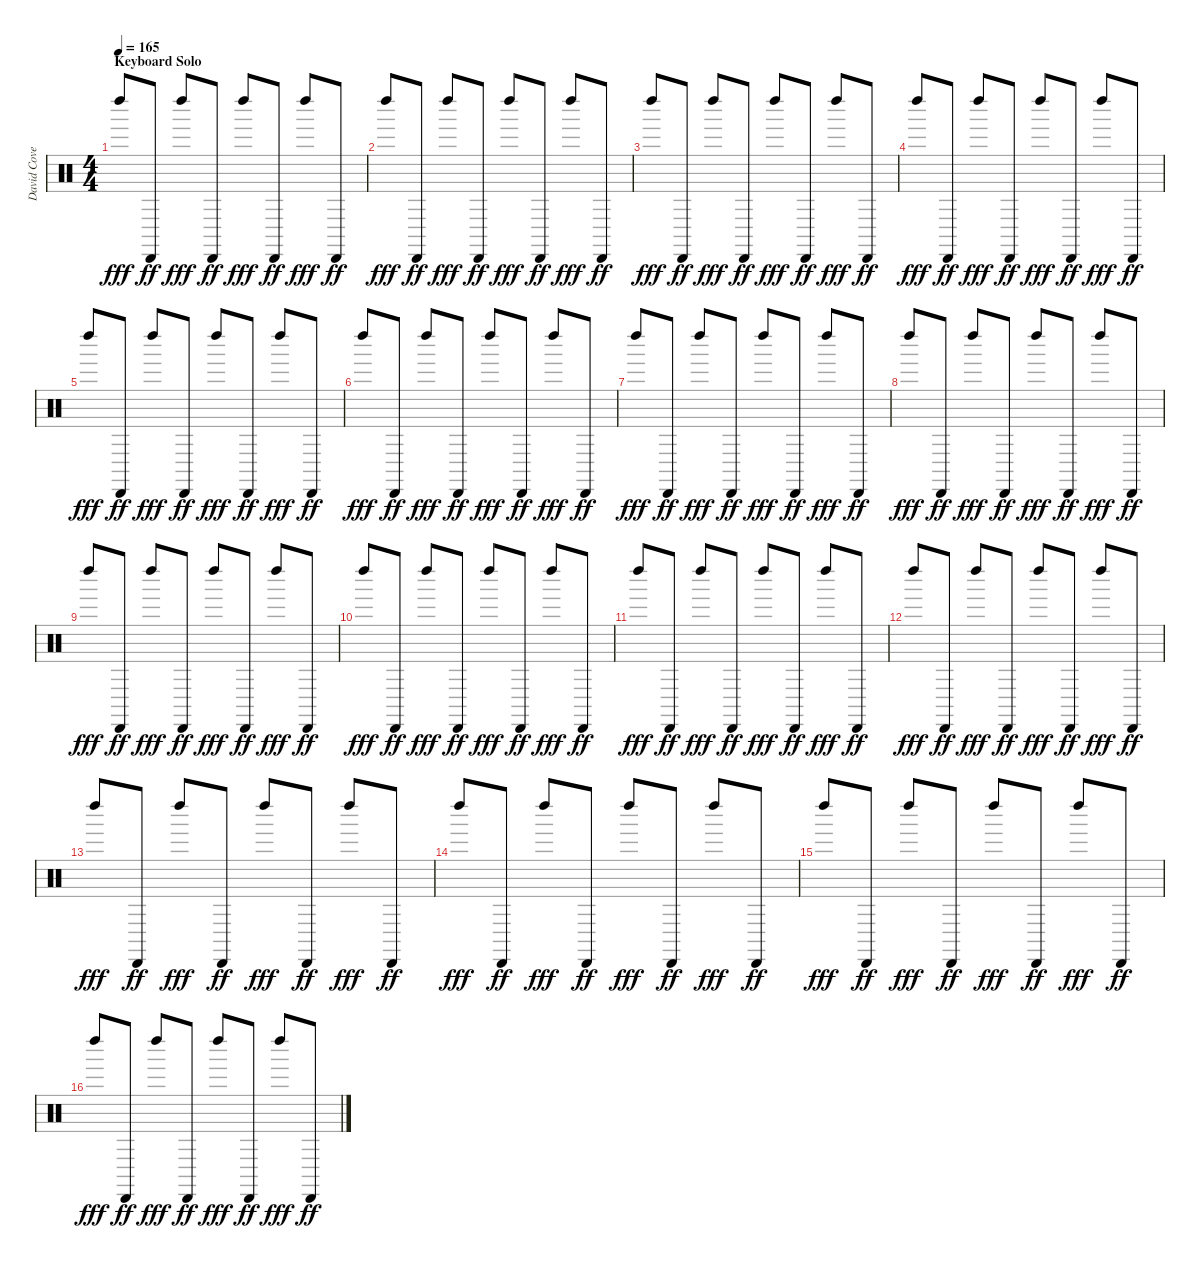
\track ("David Coverdale (Maracas)" "David Cove") {instrument percussion}
\staff {score}
\articulation defaults
\ts (4 4)
\section ("" "Keyboard Solo")
\tempo 165
\clef neutral
\ks c "Left Maraca (hit)".8{dy fff} "Cabasa (hit)".8{dy ff} "Left Maraca (hit)".8{dy fff} "Cabasa (hit)".8{dy ff} "Left Maraca (hit)".8{dy fff} "Cabasa (hit)".8{dy ff} "Left Maraca (hit)".8{dy fff} "Cabasa (hit)".8{dy ff}
|
"Left Maraca (hit)".8{dy fff} "Cabasa (hit)".8{dy ff} "Left Maraca (hit)".8{dy fff} "Cabasa (hit)".8{dy ff} "Left Maraca (hit)".8{dy fff} "Cabasa (hit)".8{dy ff} "Left Maraca (hit)".8{dy fff} "Cabasa (hit)".8{dy ff} |
"Left Maraca (hit)".8{dy fff} "Cabasa (hit)".8{dy ff} "Left Maraca (hit)".8{dy fff} "Cabasa (hit)".8{dy ff} "Left Maraca (hit)".8{dy fff} "Cabasa (hit)".8{dy ff} "Left Maraca (hit)".8{dy fff} "Cabasa (hit)".8{dy ff} |
"Left Maraca (hit)".8{dy fff} "Cabasa (hit)".8{dy ff} "Left Maraca (hit)".8{dy fff} "Cabasa (hit)".8{dy ff} "Left Maraca (hit)".8{dy fff} "Cabasa (hit)".8{dy ff} "Left Maraca (hit)".8{dy fff} "Cabasa (hit)".8{dy ff} |
"Left Maraca (hit)".8{dy fff} "Cabasa (hit)".8{dy ff} "Left Maraca (hit)".8{dy fff} "Cabasa (hit)".8{dy ff} "Left Maraca (hit)".8{dy fff} "Cabasa (hit)".8{dy ff} "Left Maraca (hit)".8{dy fff} "Cabasa (hit)".8{dy ff} |
"Left Maraca (hit)".8{dy fff} "Cabasa (hit)".8{dy ff} "Left Maraca (hit)".8{dy fff} "Cabasa (hit)".8{dy ff} "Left Maraca (hit)".8{dy fff} "Cabasa (hit)".8{dy ff} "Left Maraca (hit)".8{dy fff} "Cabasa (hit)".8{dy ff} |
"Left Maraca (hit)".8{dy fff} "Cabasa (hit)".8{dy ff} "Left Maraca (hit)".8{dy fff} "Cabasa (hit)".8{dy ff} "Left Maraca (hit)".8{dy fff} "Cabasa (hit)".8{dy ff} "Left Maraca (hit)".8{dy fff} "Cabasa (hit)".8{dy ff} |
"Left Maraca (hit)".8{dy fff} "Cabasa (hit)".8{dy ff} "Left Maraca (hit)".8{dy fff} "Cabasa (hit)".8{dy ff} "Left Maraca (hit)".8{dy fff} "Cabasa (hit)".8{dy ff} "Left Maraca (hit)".8{dy fff} "Cabasa (hit)".8{dy ff} |
"Left Maraca (hit)".8{dy fff} "Cabasa (hit)".8{dy ff} "Left Maraca (hit)".8{dy fff} "Cabasa (hit)".8{dy ff} "Left Maraca (hit)".8{dy fff} "Cabasa (hit)".8{dy ff} "Left Maraca (hit)".8{dy fff} "Cabasa (hit)".8{dy ff} |
"Left Maraca (hit)".8{dy fff} "Cabasa (hit)".8{dy ff} "Left Maraca (hit)".8{dy fff} "Cabasa (hit)".8{dy ff} "Left Maraca (hit)".8{dy fff} "Cabasa (hit)".8{dy ff} "Left Maraca (hit)".8{dy fff} "Cabasa (hit)".8{dy ff} |
"Left Maraca (hit)".8{dy fff} "Cabasa (hit)".8{dy ff} "Left Maraca (hit)".8{dy fff} "Cabasa (hit)".8{dy ff} "Left Maraca (hit)".8{dy fff} "Cabasa (hit)".8{dy ff} "Left Maraca (hit)".8{dy fff} "Cabasa (hit)".8{dy ff} |
"Left Maraca (hit)".8{dy fff} "Cabasa (hit)".8{dy ff} "Left Maraca (hit)".8{dy fff} "Cabasa (hit)".8{dy ff} "Left Maraca (hit)".8{dy fff} "Cabasa (hit)".8{dy ff} "Left Maraca (hit)".8{dy fff} "Cabasa (hit)".8{dy ff} |
"Left Maraca (hit)".8{dy fff} "Cabasa (hit)".8{dy ff} "Left Maraca (hit)".8{dy fff} "Cabasa (hit)".8{dy ff} "Left Maraca (hit)".8{dy fff} "Cabasa (hit)".8{dy ff} "Left Maraca (hit)".8{dy fff} "Cabasa (hit)".8{dy ff} |
"Left Maraca (hit)".8{dy fff} "Cabasa (hit)".8{dy ff} "Left Maraca (hit)".8{dy fff} "Cabasa (hit)".8{dy ff} "Left Maraca (hit)".8{dy fff} "Cabasa (hit)".8{dy ff} "Left Maraca (hit)".8{dy fff} "Cabasa (hit)".8{dy ff} |
"Left Maraca (hit)".8{dy fff} "Cabasa (hit)".8{dy ff} "Left Maraca (hit)".8{dy fff} "Cabasa (hit)".8{dy ff} "Left Maraca (hit)".8{dy fff} "Cabasa (hit)".8{dy ff} "Left Maraca (hit)".8{dy fff} "Cabasa (hit)".8{dy ff} |
"Left Maraca (hit)".8{dy fff} "Cabasa (hit)".8{dy ff} "Left Maraca (hit)".8{dy fff} "Cabasa (hit)".8{dy ff} "Left Maraca (hit)".8{dy fff} "Cabasa (hit)".8{dy ff} "Left Maraca (hit)".8{dy fff} "Cabasa (hit)".8{dy ff}
